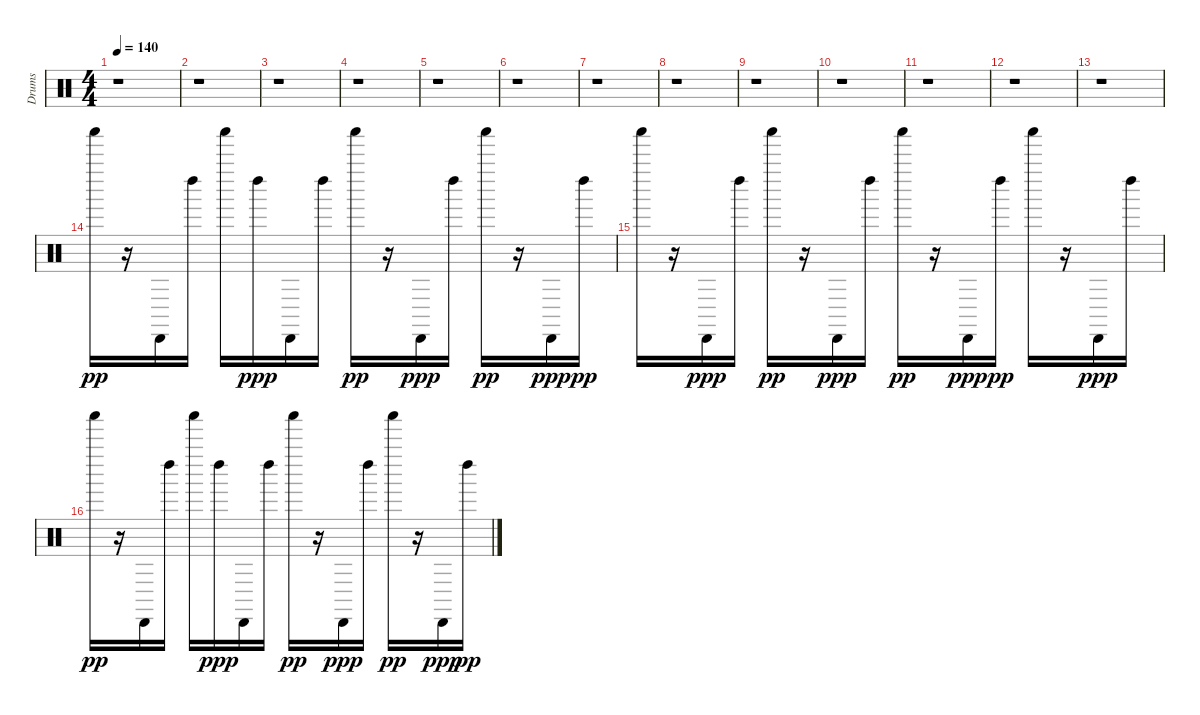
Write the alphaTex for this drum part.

\track ("Drums" "Drums") {instrument percussion}
\staff {score}
\articulation defaults
\ts (4 4)
\tempo 140
\clef neutral
\ks c
r.1{dy pp} |
r.1 |
r.1 |
r.1 |
r.1 |
r.1 |
r.1 |
r.1 |
r.1 |
r.1 |
r.1 |
r.1 |
r.1 |
"Shaker (hit)".16 r.16 "Cabasa (hit)".16 "Left Maraca (hit)".16 "Shaker (hit)".16 "Left Maraca (hit)".16{dy ppp} "Cabasa (hit)".16 "Left Maraca (hit)".16 "Shaker (hit)".16{dy pp} r.16 "Cabasa (hit)".16{dy ppp} "Left Maraca (hit)".16 "Shaker (hit)".16{dy pp} r.16 "Cabasa (hit)".16{dy ppp} "Left Maraca (hit)".16{dy pp} |
"Shaker (hit)".16 r.16 "Cabasa (hit)".16{dy ppp} "Left Maraca (hit)".16 "Shaker (hit)".16{dy pp} r.16 "Cabasa (hit)".16{dy ppp} "Left Maraca (hit)".16 "Shaker (hit)".16{dy pp} r.16 "Cabasa (hit)".16{dy ppp} "Left Maraca (hit)".16{dy pp} "Shaker (hit)".16 r.16 "Cabasa (hit)".16{dy ppp} "Left Maraca (hit)".16 |
"Shaker (hit)".16{dy pp} r.16 "Cabasa (hit)".16 "Left Maraca (hit)".16 "Shaker (hit)".16 "Left Maraca (hit)".16{dy ppp} "Cabasa (hit)".16 "Left Maraca (hit)".16 "Shaker (hit)".16{dy pp} r.16 "Cabasa (hit)".16{dy ppp} "Left Maraca (hit)".16 "Shaker (hit)".16{dy pp} r.16 "Cabasa (hit)".16{dy ppp} "Left Maraca (hit)".16{dy pp}
